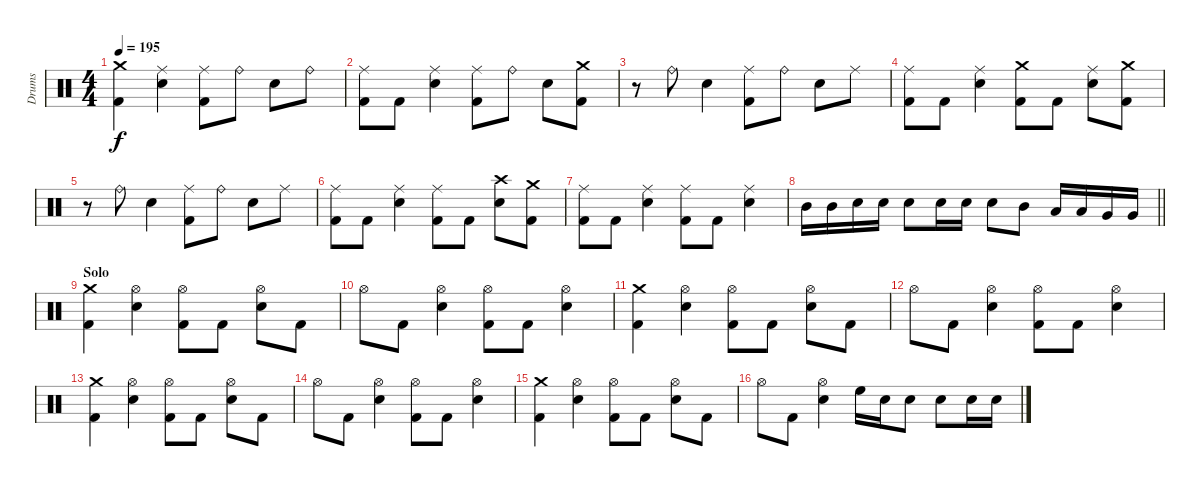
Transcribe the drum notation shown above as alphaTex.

\track ("Drums" "Drums") {instrument percussion}
\staff {score}
\articulation defaults
\ts (4 4)
\tempo 195
\clef neutral
\ks c
("Crash medium (hit)" "Kick (hit) 2").4{dy f} ("Ride (middle)" "Snare (hit) 2").4 ("Ride (middle)" "Kick (hit) 2").8 "Ride (bell)".8 "Snare (hit) 2".8 "Ride (bell)".8 |
("Ride (middle)" "Kick (hit) 2").8 "Kick (hit) 2".8 ("Ride (middle)" "Snare (hit) 2").4 ("Ride (middle)" "Kick (hit) 2").8 "Ride (bell)".8 "Snare (hit) 2".8 ("Crash medium (hit)" "Kick (hit) 2").8 |
r.8 "Ride (bell)".8 "Snare (hit) 2".4 ("Ride (middle)" "Kick (hit) 2").8 "Ride (bell)".8 "Snare (hit) 2".8 "Ride (middle)".8 |
("Ride (middle)" "Kick (hit) 2").8 "Kick (hit) 2".8 ("Ride (middle)" "Snare (hit) 2").4 ("Crash medium (hit)" "Kick (hit) 2").8 "Kick (hit) 2".8 ("Ride (middle)" "Snare (hit) 2").8 ("Crash medium (hit)" "Kick (hit) 2").8 |
r.8 "Ride (bell)".8 "Snare (hit) 2".4 ("Ride (middle)" "Kick (hit) 2").8 "Ride (bell)".8 "Snare (hit) 2".8 "Ride (middle)".8 |
("Ride (middle)" "Kick (hit) 2").8 "Kick (hit) 2".8 ("Ride (middle)" "Snare (hit) 2").4 ("Ride (middle)" "Kick (hit) 2").8 "Kick (hit) 2".8 ("Crash high (hit)" "Snare (hit) 2").8 ("Crash medium (hit)" "Kick (hit) 2").8 |
("Ride (middle)" "Kick (hit) 2").8 "Kick (hit) 2".8 ("Ride (middle)" "Snare (hit) 2").4 ("Ride (middle)" "Kick (hit) 2").8 "Kick (hit) 2".8 ("Ride (middle)" "Snare (hit) 2").4 |
\barLineRight lightlight "Mid Tom (hit)".16 "Mid Tom (hit)".16 "Snare (hit) 2".16 "Snare (hit) 2".16 "Snare (hit) 2".8 "Snare (hit) 2".16 "Snare (hit) 2".16 "Snare (hit) 2".8 "Mid Tom (hit)".8 "Low Tom (hit)".16 "Low Tom (hit)".16 "Very Low Tom (hit)".16 "Very Low Tom (hit)".16
|
\section ("" "Solo")
("Crash medium (hit)" "Kick (hit) 2").4 ("Hi-Hat (open)" "Snare (hit) 2").4 ("Hi-Hat (open)" "Kick (hit) 2").8 "Kick (hit) 2".8 ("Hi-Hat (open)" "Snare (hit) 2").8 "Kick (hit) 2".8 |
"Hi-Hat (open)".8 "Kick (hit) 2".8 ("Hi-Hat (open)" "Snare (hit) 2").4 ("Hi-Hat (open)" "Kick (hit) 2").8 "Kick (hit) 2".8 ("Hi-Hat (open)" "Snare (hit) 2").4 |
("Crash medium (hit)" "Kick (hit) 2").4 ("Hi-Hat (open)" "Snare (hit) 2").4 ("Hi-Hat (open)" "Kick (hit) 2").8 "Kick (hit) 2".8 ("Hi-Hat (open)" "Snare (hit) 2").8 "Kick (hit) 2".8 |
"Hi-Hat (open)".8 "Kick (hit) 2".8 ("Hi-Hat (open)" "Snare (hit) 2").4 ("Hi-Hat (open)" "Kick (hit) 2").8 "Kick (hit) 2".8 ("Hi-Hat (open)" "Snare (hit) 2").4 |
("Crash medium (hit)" "Kick (hit) 2").4 ("Hi-Hat (open)" "Snare (hit) 2").4 ("Hi-Hat (open)" "Kick (hit) 2").8 "Kick (hit) 2".8 ("Hi-Hat (open)" "Snare (hit) 2").8 "Kick (hit) 2".8 |
"Hi-Hat (open)".8 "Kick (hit) 2".8 ("Hi-Hat (open)" "Snare (hit) 2").4 ("Hi-Hat (open)" "Kick (hit) 2").8 "Kick (hit) 2".8 ("Hi-Hat (open)" "Snare (hit) 2").4 |
("Crash medium (hit)" "Kick (hit) 2").4 ("Hi-Hat (open)" "Snare (hit) 2").4 ("Hi-Hat (open)" "Kick (hit) 2").8 "Kick (hit) 2".8 ("Hi-Hat (open)" "Snare (hit) 2").8 "Kick (hit) 2".8 |
"Hi-Hat (open)".8 "Kick (hit) 2".8 ("Hi-Hat (open)" "Snare (hit) 2").4 "High Floor Tom (hit)".16 "Snare (hit) 2".16 "Snare (hit) 2".8 "Snare (hit) 2".8 "Snare (hit) 2".16 "Snare (hit) 2".16
